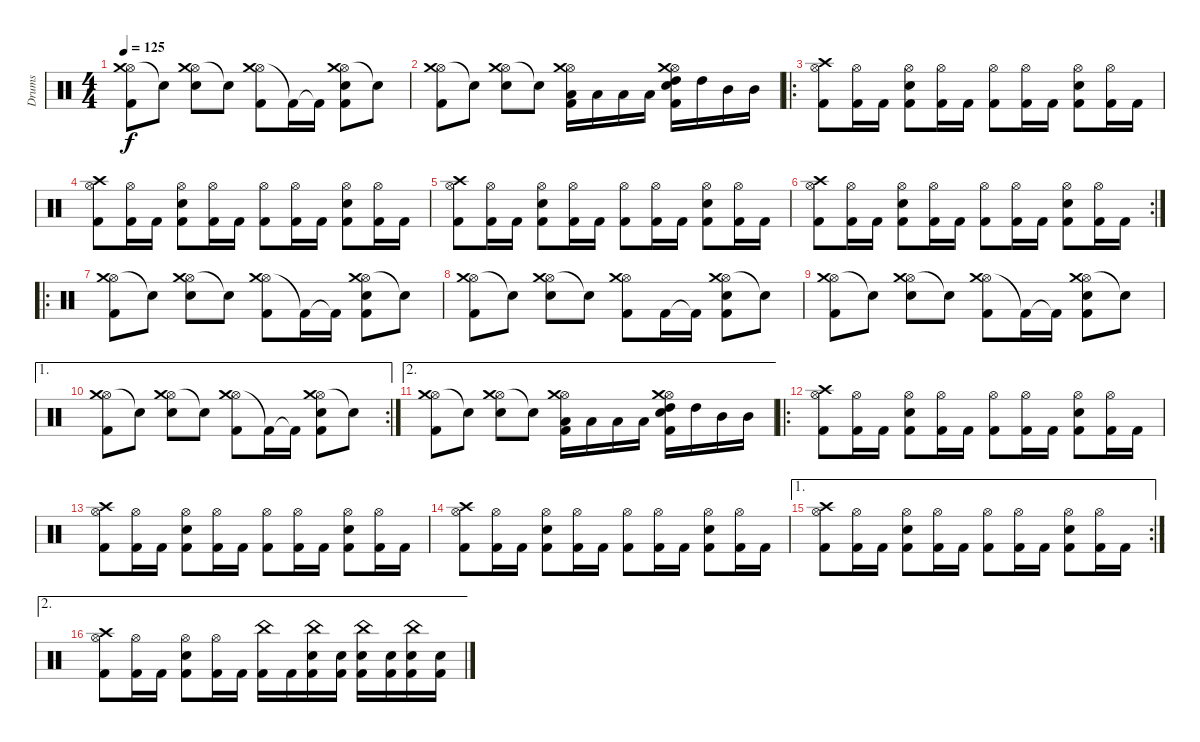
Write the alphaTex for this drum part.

\track ("Drums" "Drums") {instrument percussion}
\staff {score}
\articulation defaults
\ts (4 4)
\tempo 125
\clef neutral
\ks c
("Hi-Hat (open)" "Crash medium (hit)" "Kick (hit) 2").8{dy f} "Snare (hit)"{t}.8 ("Hi-Hat (open)" "Crash medium (hit)" "Snare (hit) 2").8 "Snare (hit)"{t}.8 ("Hi-Hat (open)" "Crash medium (hit)" "Kick (hit) 2").8 "Kick (hit) 2"{t}.16 "Kick (hit) 2"{t}.16 ("Hi-Hat (open)" "Crash medium (hit)" "Snare (hit) 2" "Kick (hit) 2").8 "Snare (hit)"{t}.8 |
("Hi-Hat (open)" "Crash medium (hit)" "Kick (hit) 2").8 "Snare (hit)"{t}.8 ("Hi-Hat (open)" "Crash medium (hit)" "Snare (hit) 2").8 "Snare (hit)"{t}.8 ("Hi-Hat (open)" "Crash medium (hit)" "Kick (hit) 2" "Low Floor Tom (hit)").16 "Low Floor Tom (hit)".16 "Low Tom (hit)".16 "Low Tom (hit)".16 ("Hi-Hat (open)" "Crash medium (hit)" "Kick (hit) 2" "Snare (hit) 2" "High Tom (hit)").16 "High Tom (hit)".16 "Mid Tom (hit)".16 "Mid Tom (hit)".16 |
\ro
("Hi-Hat (open)" "Crash high (hit)" "Kick (hit) 2").8 ("Hi-Hat (open)" "Kick (hit) 2").16 "Kick (hit) 2".16 ("Hi-Hat (open)" "Snare (hit) 2" "Kick (hit) 2").8 ("Hi-Hat (open)" "Kick (hit) 2").16 "Kick (hit) 2".16 ("Hi-Hat (open)" "Kick (hit) 2").8 ("Hi-Hat (open)" "Kick (hit) 2").16 "Kick (hit) 2".16 ("Hi-Hat (open)" "Snare (hit) 2" "Kick (hit) 2").8 ("Hi-Hat (open)" "Kick (hit) 2").16 "Kick (hit) 2".16 |
("Hi-Hat (open)" "Crash high (hit)" "Kick (hit) 2").8 ("Hi-Hat (open)" "Kick (hit) 2").16 "Kick (hit) 2".16 ("Hi-Hat (open)" "Snare (hit) 2" "Kick (hit) 2").8 ("Hi-Hat (open)" "Kick (hit) 2").16 "Kick (hit) 2".16 ("Hi-Hat (open)" "Kick (hit) 2").8 ("Hi-Hat (open)" "Kick (hit) 2").16 "Kick (hit) 2".16 ("Hi-Hat (open)" "Snare (hit) 2" "Kick (hit) 2").8 ("Hi-Hat (open)" "Kick (hit) 2").16 "Kick (hit) 2".16 |
("Hi-Hat (open)" "Crash high (hit)" "Kick (hit) 2").8 ("Hi-Hat (open)" "Kick (hit) 2").16 "Kick (hit) 2".16 ("Hi-Hat (open)" "Snare (hit) 2" "Kick (hit) 2").8 ("Hi-Hat (open)" "Kick (hit) 2").16 "Kick (hit) 2".16 ("Hi-Hat (open)" "Kick (hit) 2").8 ("Hi-Hat (open)" "Kick (hit) 2").16 "Kick (hit) 2".16 ("Hi-Hat (open)" "Snare (hit) 2" "Kick (hit) 2").8 ("Hi-Hat (open)" "Kick (hit) 2").16 "Kick (hit) 2".16 |
\rc 2
("Hi-Hat (open)" "Crash high (hit)" "Kick (hit) 2").8 ("Hi-Hat (open)" "Kick (hit) 2").16 "Kick (hit) 2".16 ("Hi-Hat (open)" "Snare (hit) 2" "Kick (hit) 2").8 ("Hi-Hat (open)" "Kick (hit) 2").16 "Kick (hit) 2".16 ("Hi-Hat (open)" "Kick (hit) 2").8 ("Hi-Hat (open)" "Kick (hit) 2").16 "Kick (hit) 2".16 ("Hi-Hat (open)" "Snare (hit) 2" "Kick (hit) 2").8 ("Hi-Hat (open)" "Kick (hit) 2").16 "Kick (hit) 2".16 |
\ro
("Hi-Hat (open)" "Crash medium (hit)" "Kick (hit) 2").8 "Snare (hit)"{t}.8 ("Hi-Hat (open)" "Crash medium (hit)" "Snare (hit) 2").8 "Snare (hit)"{t}.8 ("Hi-Hat (open)" "Crash medium (hit)" "Kick (hit) 2").8 "Kick (hit) 2"{t}.16 "Kick (hit) 2"{t}.16 ("Hi-Hat (open)" "Crash medium (hit)" "Snare (hit) 2" "Kick (hit) 2").8 "Snare (hit)"{t}.8 |
("Hi-Hat (open)" "Crash medium (hit)" "Kick (hit) 2").8 "Snare (hit)"{t}.8 ("Hi-Hat (open)" "Crash medium (hit)" "Snare (hit) 2").8 "Snare (hit)"{t}.8 ("Hi-Hat (open)" "Crash medium (hit)" "Kick (hit) 2").8 "Kick (hit) 2".16 "Kick (hit) 2"{t}.16 ("Hi-Hat (open)" "Crash medium (hit)" "Snare (hit) 2" "Kick (hit) 2").8 "Snare (hit)"{t}.8 |
("Hi-Hat (open)" "Crash medium (hit)" "Kick (hit) 2").8 "Snare (hit)"{t}.8 ("Hi-Hat (open)" "Crash medium (hit)" "Snare (hit) 2").8 "Snare (hit)"{t}.8 ("Hi-Hat (open)" "Crash medium (hit)" "Kick (hit) 2").8 "Kick (hit) 2"{t}.16 "Kick (hit) 2"{t}.16 ("Hi-Hat (open)" "Crash medium (hit)" "Snare (hit) 2" "Kick (hit) 2").8 "Snare (hit)"{t}.8 |
\ae 1
\rc 2
("Hi-Hat (open)" "Crash medium (hit)" "Kick (hit) 2").8 "Snare (hit)"{t}.8 ("Hi-Hat (open)" "Crash medium (hit)" "Snare (hit) 2").8 "Snare (hit)"{t}.8 ("Hi-Hat (open)" "Crash medium (hit)" "Kick (hit) 2").8 "Kick (hit) 2"{t}.16 "Kick (hit) 2"{t}.16 ("Hi-Hat (open)" "Crash medium (hit)" "Snare (hit) 2" "Kick (hit) 2").8 "Snare (hit)"{t}.8 |
\ae 2
("Hi-Hat (open)" "Crash medium (hit)" "Kick (hit) 2").8 "Snare (hit)"{t}.8 ("Hi-Hat (open)" "Crash medium (hit)" "Snare (hit) 2").8 "Snare (hit)"{t}.8 ("Hi-Hat (open)" "Crash medium (hit)" "Kick (hit) 2" "Low Floor Tom (hit)").16 "Low Floor Tom (hit)".16 "Low Tom (hit)".16 "Low Tom (hit)".16 ("Hi-Hat (open)" "Crash medium (hit)" "Kick (hit) 2" "Snare (hit) 2" "High Tom (hit)").16 "High Tom (hit)".16 "Mid Tom (hit)".16 "Mid Tom (hit)".16 |
\ro
("Hi-Hat (open)" "Crash high (hit)" "Kick (hit) 2").8 ("Hi-Hat (open)" "Kick (hit) 2").16 "Kick (hit) 2".16 ("Hi-Hat (open)" "Snare (hit) 2" "Kick (hit) 2").8 ("Hi-Hat (open)" "Kick (hit) 2").16 "Kick (hit) 2".16 ("Hi-Hat (open)" "Kick (hit) 2").8 ("Hi-Hat (open)" "Kick (hit) 2").16 "Kick (hit) 2".16 ("Hi-Hat (open)" "Snare (hit) 2" "Kick (hit) 2").8 ("Hi-Hat (open)" "Kick (hit) 2").16 "Kick (hit) 2".16 |
("Hi-Hat (open)" "Crash high (hit)" "Kick (hit) 2").8 ("Hi-Hat (open)" "Kick (hit) 2").16 "Kick (hit) 2".16 ("Hi-Hat (open)" "Snare (hit) 2" "Kick (hit) 2").8 ("Hi-Hat (open)" "Kick (hit) 2").16 "Kick (hit) 2".16 ("Hi-Hat (open)" "Kick (hit) 2").8 ("Hi-Hat (open)" "Kick (hit) 2").16 "Kick (hit) 2".16 ("Hi-Hat (open)" "Snare (hit) 2" "Kick (hit) 2").8 ("Hi-Hat (open)" "Kick (hit) 2").16 "Kick (hit) 2".16 |
("Hi-Hat (open)" "Crash high (hit)" "Kick (hit) 2").8 ("Hi-Hat (open)" "Kick (hit) 2").16 "Kick (hit) 2".16 ("Hi-Hat (open)" "Snare (hit) 2" "Kick (hit) 2").8 ("Hi-Hat (open)" "Kick (hit) 2").16 "Kick (hit) 2".16 ("Hi-Hat (open)" "Kick (hit) 2").8 ("Hi-Hat (open)" "Kick (hit) 2").16 "Kick (hit) 2".16 ("Hi-Hat (open)" "Snare (hit) 2" "Kick (hit) 2").8 ("Hi-Hat (open)" "Kick (hit) 2").16 "Kick (hit) 2".16 |
\ae 1
\rc 2
("Hi-Hat (open)" "Crash high (hit)" "Kick (hit) 2").8 ("Hi-Hat (open)" "Kick (hit) 2").16 "Kick (hit) 2".16 ("Hi-Hat (open)" "Snare (hit) 2" "Kick (hit) 2").8 ("Hi-Hat (open)" "Kick (hit) 2").16 "Kick (hit) 2".16 ("Hi-Hat (open)" "Kick (hit) 2").8 ("Hi-Hat (open)" "Kick (hit) 2").16 "Kick (hit) 2".16 ("Hi-Hat (open)" "Snare (hit) 2" "Kick (hit) 2").8 ("Hi-Hat (open)" "Kick (hit) 2").16 "Kick (hit) 2".16 |
\ae 2
("Hi-Hat (open)" "Crash high (hit)" "Kick (hit) 2").8 ("Hi-Hat (open)" "Kick (hit) 2").16 "Kick (hit) 2".16 ("Hi-Hat (open)" "Snare (hit) 2" "Kick (hit) 2").8 ("Hi-Hat (open)" "Kick (hit) 2").16 "Kick (hit) 2".16 ("China (hit)" "Kick (hit) 2").16 "Kick (hit) 2".16 ("China (hit)" "Snare (hit) 2" "Kick (hit) 2").16 ("Snare (hit) 2" "Kick (hit) 2").16 ("China (hit)" "Snare (hit) 2" "Kick (hit) 2").16 ("Snare (hit) 2" "Kick (hit) 2").16 ("China (hit)" "Snare (hit) 2" "Kick (hit) 2").16 ("Snare (hit) 2" "Kick (hit) 2").16
